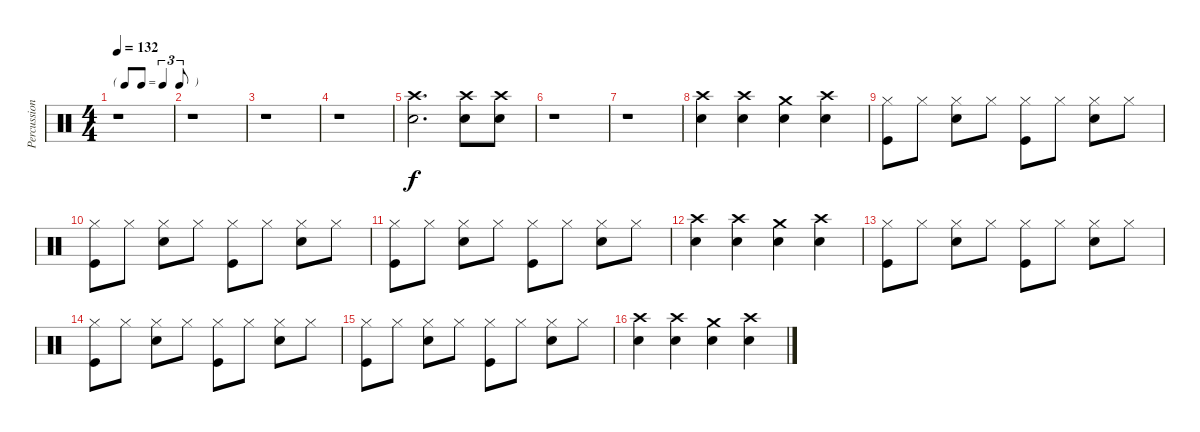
\track ("Percussion" "Percussion") {instrument percussion}
\staff {score}
\articulation defaults
\ts (4 4)
\tf triplet8th
\tempo 132
\clef neutral
\ks c
r.1{dy f} |
r.1 |
r.1 |
r.1 |
("Crash high (hit)" "Snare (hit) 2").2{d} ("Crash high (hit)" "Snare (hit) 2").8 ("Crash high (hit)" "Snare (hit) 2").8 |
r.1 |
r.1 |
("Crash high (hit)" "Snare (hit) 2").4 ("Crash high (hit)" "Snare (hit) 2").4 ("Crash medium (hit)" "Snare (hit) 2").4 ("Crash high (hit)" "Snare (hit) 2").4 |
("Hi-Hat (closed)" "Kick (hit)").8 "Hi-Hat (closed)".8 ("Hi-Hat (closed)" "Snare (hit) 2").8 "Hi-Hat (closed)".8 ("Hi-Hat (closed)" "Kick (hit)").8 "Hi-Hat (closed)".8 ("Hi-Hat (closed)" "Snare (hit) 2").8 "Hi-Hat (closed)".8 |
("Hi-Hat (closed)" "Kick (hit)").8 "Hi-Hat (closed)".8 ("Hi-Hat (closed)" "Snare (hit) 2").8 "Hi-Hat (closed)".8 ("Hi-Hat (closed)" "Kick (hit)").8 "Hi-Hat (closed)".8 ("Hi-Hat (closed)" "Snare (hit) 2").8 "Hi-Hat (closed)".8 |
("Hi-Hat (closed)" "Kick (hit)").8 "Hi-Hat (closed)".8 ("Hi-Hat (closed)" "Snare (hit) 2").8 "Hi-Hat (closed)".8 ("Hi-Hat (closed)" "Kick (hit)").8 "Hi-Hat (closed)".8 ("Hi-Hat (closed)" "Snare (hit) 2").8 "Hi-Hat (closed)".8 |
("Crash high (hit)" "Snare (hit) 2").4 ("Crash high (hit)" "Snare (hit) 2").4 ("Crash medium (hit)" "Snare (hit) 2").4 ("Crash high (hit)" "Snare (hit) 2").4 |
("Hi-Hat (closed)" "Kick (hit)").8 "Hi-Hat (closed)".8 ("Hi-Hat (closed)" "Snare (hit) 2").8 "Hi-Hat (closed)".8 ("Hi-Hat (closed)" "Kick (hit)").8 "Hi-Hat (closed)".8 ("Hi-Hat (closed)" "Snare (hit) 2").8 "Hi-Hat (closed)".8 |
("Hi-Hat (closed)" "Kick (hit)").8 "Hi-Hat (closed)".8 ("Hi-Hat (closed)" "Snare (hit) 2").8 "Hi-Hat (closed)".8 ("Hi-Hat (closed)" "Kick (hit)").8 "Hi-Hat (closed)".8 ("Hi-Hat (closed)" "Snare (hit) 2").8 "Hi-Hat (closed)".8 |
("Hi-Hat (closed)" "Kick (hit)").8 "Hi-Hat (closed)".8 ("Hi-Hat (closed)" "Snare (hit) 2").8 "Hi-Hat (closed)".8 ("Hi-Hat (closed)" "Kick (hit)").8 "Hi-Hat (closed)".8 ("Hi-Hat (closed)" "Snare (hit) 2").8 "Hi-Hat (closed)".8 |
("Crash high (hit)" "Snare (hit) 2").4 ("Crash high (hit)" "Snare (hit) 2").4 ("Crash medium (hit)" "Snare (hit) 2").4 ("Crash high (hit)" "Snare (hit) 2").4
